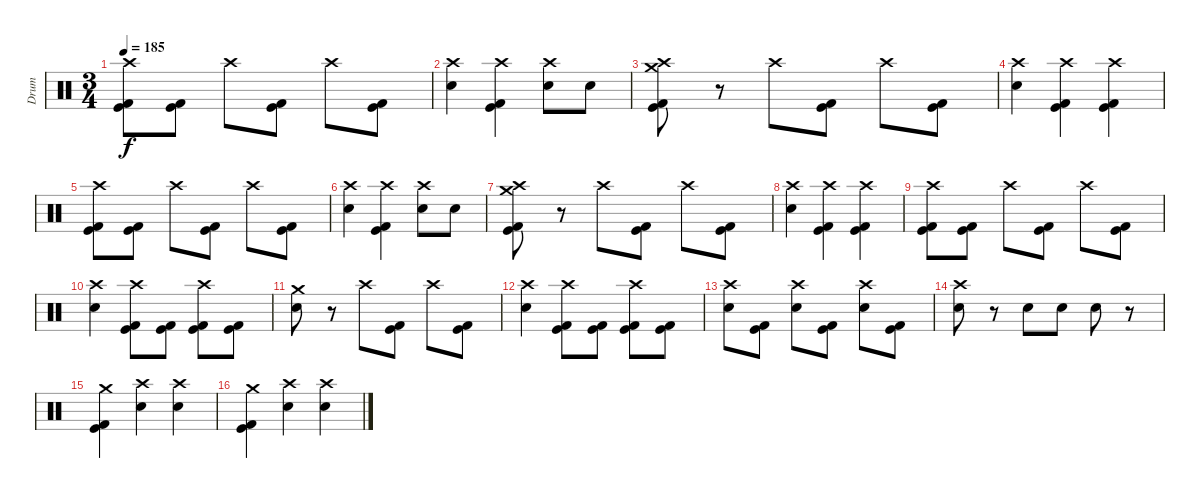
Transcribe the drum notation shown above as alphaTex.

\track ("Drum" "Drum") {instrument percussion}
\staff {score}
\articulation defaults
\ts (3 4)
\tempo 185
\clef neutral
\ks c
("Crash high (hit)" "Kick (hit)" "Kick (hit) 2").8{dy f} ("Kick (hit)" "Kick (hit) 2").8 "Crash high (hit)".8 ("Kick (hit)" "Kick (hit) 2").8 "Crash high (hit)".8 ("Kick (hit)" "Kick (hit) 2").8 |
("Crash high (hit)" "Electric Snare (hit)").4 ("Crash high (hit)" "Kick (hit)" "Kick (hit) 2").4 ("Crash high (hit)" "Electric Snare (hit)").8 "Electric Snare (hit)".8 |
("Crash medium (hit)" "Crash high (hit)" "Kick (hit)" "Kick (hit) 2").8 r.8 "Crash high (hit)".8 ("Kick (hit)" "Kick (hit) 2").8 "Crash high (hit)".8 ("Kick (hit)" "Kick (hit) 2").8 |
("Crash high (hit)" "Electric Snare (hit)").4 ("Crash high (hit)" "Kick (hit)" "Kick (hit) 2").4 ("Crash high (hit)" "Kick (hit)" "Kick (hit) 2").4 |
("Crash high (hit)" "Kick (hit)" "Kick (hit) 2").8 ("Kick (hit)" "Kick (hit) 2").8 "Crash high (hit)".8 ("Kick (hit)" "Kick (hit) 2").8 "Crash high (hit)".8 ("Kick (hit)" "Kick (hit) 2").8 |
("Crash high (hit)" "Electric Snare (hit)").4 ("Crash high (hit)" "Kick (hit)" "Kick (hit) 2").4 ("Crash high (hit)" "Electric Snare (hit)").8 "Electric Snare (hit)".8 |
("Crash medium (hit)" "Crash high (hit)" "Kick (hit)" "Kick (hit) 2").8 r.8 "Crash high (hit)".8 ("Kick (hit)" "Kick (hit) 2").8 "Crash high (hit)".8 ("Kick (hit)" "Kick (hit) 2").8 |
("Crash high (hit)" "Electric Snare (hit)").4 ("Crash high (hit)" "Kick (hit)" "Kick (hit) 2").4 ("Crash high (hit)" "Kick (hit)" "Kick (hit) 2").4 |
("Crash high (hit)" "Kick (hit)" "Kick (hit) 2").8 ("Kick (hit)" "Kick (hit) 2").8 "Crash high (hit)".8 ("Kick (hit)" "Kick (hit) 2").8 "Crash high (hit)".8 ("Kick (hit)" "Kick (hit) 2").8 |
("Crash high (hit)" "Electric Snare (hit)").4 ("Crash high (hit)" "Kick (hit)" "Kick (hit) 2").8 ("Kick (hit)" "Kick (hit) 2").8 ("Crash high (hit)" "Kick (hit)" "Kick (hit) 2").8 ("Kick (hit)" "Kick (hit) 2").8 |
("Crash medium (hit)" "Electric Snare (hit)").8 r.8 "Crash high (hit)".8 ("Kick (hit)" "Kick (hit) 2").8 "Crash high (hit)".8 ("Kick (hit)" "Kick (hit) 2").8 |
("Crash high (hit)" "Electric Snare (hit)").4 ("Crash high (hit)" "Kick (hit)" "Kick (hit) 2").8 ("Kick (hit)" "Kick (hit) 2").8 ("Crash high (hit)" "Kick (hit)" "Kick (hit) 2").8 ("Kick (hit)" "Kick (hit) 2").8 |
("Crash high (hit)" "Electric Snare (hit)").8 ("Kick (hit)" "Kick (hit) 2").8 ("Crash high (hit)" "Electric Snare (hit)").8 ("Kick (hit)" "Kick (hit) 2").8 ("Crash high (hit)" "Electric Snare (hit)").8 ("Kick (hit)" "Kick (hit) 2").8 |
("Crash high (hit)" "Electric Snare (hit)").8 r.8 "Electric Snare (hit)".8 "Electric Snare (hit)".8 "Electric Snare (hit)".8 r.8 |
("Crash medium (hit)" "Kick (hit)" "Kick (hit) 2").4 ("Crash high (hit)" "Electric Snare (hit)").4 ("Crash high (hit)" "Electric Snare (hit)").4 |
("Crash medium (hit)" "Kick (hit)" "Kick (hit) 2").4 ("Crash high (hit)" "Electric Snare (hit)").4 ("Crash high (hit)" "Electric Snare (hit)").4
